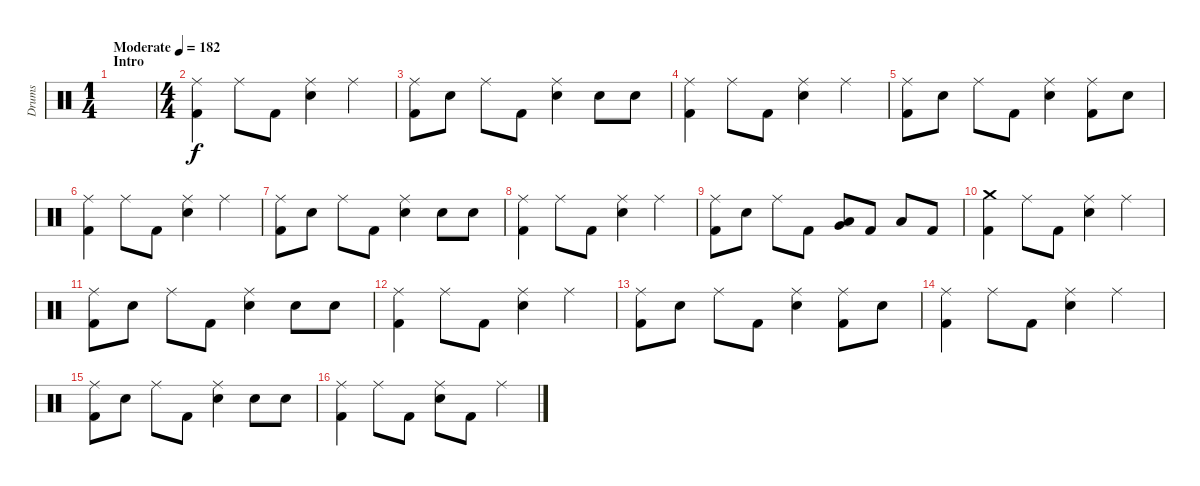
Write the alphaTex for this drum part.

\track ("Drums" "Drums") {instrument percussion}
\staff {score}
\articulation defaults
\ts (1 4)
\section ("" "Intro")
\tempo (182 "Moderate")
\clef neutral
\ks c
|
\ts (4 4)
("Ride (middle)" "Kick (hit) 2").4{volume 9} "Ride (middle)".8 "Kick (hit) 2".8 ("Ride (middle)" "Electric Snare (hit)").4 "Ride (middle)".4 |
("Ride (middle)" "Kick (hit) 2").8 "Electric Snare (hit)".8 "Ride (middle)".8 "Kick (hit) 2".8 ("Ride (middle)" "Electric Snare (hit)").4 "Electric Snare (hit)".8 "Electric Snare (hit)".8 |
("Ride (middle)" "Kick (hit) 2").4 "Ride (middle)".8 "Kick (hit) 2".8 ("Ride (middle)" "Electric Snare (hit)").4 "Ride (middle)".4 |
("Ride (middle)" "Kick (hit) 2").8 "Electric Snare (hit)".8 "Ride (middle)".8 "Kick (hit) 2".8 ("Ride (middle)" "Electric Snare (hit)").4 ("Ride (middle)" "Kick (hit) 2").8 "Electric Snare (hit)".8 |
("Ride (middle)" "Kick (hit) 2").4 "Ride (middle)".8 "Kick (hit) 2".8 ("Ride (middle)" "Electric Snare (hit)").4 "Ride (middle)".4 |
("Ride (middle)" "Kick (hit) 2").8 "Electric Snare (hit)".8 "Ride (middle)".8 "Kick (hit) 2".8 ("Ride (middle)" "Electric Snare (hit)").4 "Electric Snare (hit)".8 "Electric Snare (hit)".8 |
("Ride (middle)" "Kick (hit) 2").4 "Ride (middle)".8 "Kick (hit) 2".8 ("Ride (middle)" "Electric Snare (hit)").4 "Ride (middle)".4 |
("Ride (middle)" "Kick (hit) 2").8 "Electric Snare (hit)".8 "Ride (middle)".8 "Kick (hit) 2".8 ("Very Low Tom (hit)" "Low Tom (hit)").8 "Kick (hit) 2".8 "Low Floor Tom (hit)".8 "Kick (hit) 2".8 |
("Crash medium (hit)" "Kick (hit) 2").4 "Ride (middle)".8 "Kick (hit) 2".8 ("Ride (middle)" "Electric Snare (hit)").4 "Ride (middle)".4 |
("Ride (middle)" "Kick (hit) 2").8 "Electric Snare (hit)".8 "Ride (middle)".8 "Kick (hit) 2".8 ("Ride (middle)" "Electric Snare (hit)").4 "Electric Snare (hit)".8 "Electric Snare (hit)".8 |
("Ride (middle)" "Kick (hit) 2").4 "Ride (middle)".8 "Kick (hit) 2".8 ("Ride (middle)" "Electric Snare (hit)").4 "Ride (middle)".4 |
("Ride (middle)" "Kick (hit) 2").8 "Electric Snare (hit)".8 "Ride (middle)".8 "Kick (hit) 2".8 ("Ride (middle)" "Electric Snare (hit)").4 ("Ride (middle)" "Kick (hit) 2").8 "Electric Snare (hit)".8 |
("Ride (middle)" "Kick (hit) 2").4 "Ride (middle)".8 "Kick (hit) 2".8 ("Ride (middle)" "Electric Snare (hit)").4 "Ride (middle)".4 |
("Ride (middle)" "Kick (hit) 2").8 "Electric Snare (hit)".8 "Ride (middle)".8 "Kick (hit) 2".8 ("Ride (middle)" "Electric Snare (hit)").4 "Electric Snare (hit)".8 "Electric Snare (hit)".8 |
("Ride (middle)" "Kick (hit) 2").4 "Ride (middle)".8 "Kick (hit) 2".8 ("Ride (middle)" "Electric Snare (hit)").8 "Kick (hit) 2".8 "Ride (middle)".4
